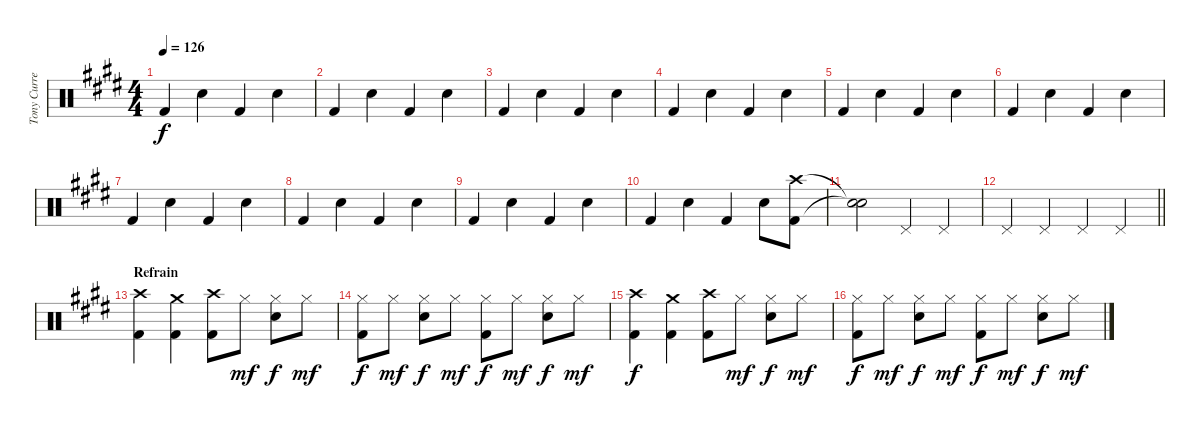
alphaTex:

\track ("Tony Currenti" "Tony Curre") {instrument percussion}
\staff {score}
\articulation defaults
\ts (4 4)
\tempo 126
\clef neutral
\ks e "Kick (hit) 2".4{dy f} "Snare (hit) 2".4 "Kick (hit) 2".4 "Snare (hit) 2".4
|
"Kick (hit) 2".4 "Snare (hit) 2".4 "Kick (hit) 2".4 "Snare (hit) 2".4 |
"Kick (hit) 2".4 "Snare (hit) 2".4 "Kick (hit) 2".4 "Snare (hit) 2".4 |
"Kick (hit) 2".4 "Snare (hit) 2".4 "Kick (hit) 2".4 "Snare (hit) 2".4 |
"Kick (hit) 2".4 "Snare (hit) 2".4 "Kick (hit) 2".4 "Snare (hit) 2".4 |
"Kick (hit) 2".4 "Snare (hit) 2".4 "Kick (hit) 2".4 "Snare (hit) 2".4 |
"Kick (hit) 2".4 "Snare (hit) 2".4 "Kick (hit) 2".4 "Snare (hit) 2".4 |
"Kick (hit) 2".4 "Snare (hit) 2".4 "Kick (hit) 2".4 "Snare (hit) 2".4 |
"Kick (hit) 2".4 "Snare (hit) 2".4 "Kick (hit) 2".4 "Snare (hit) 2".4 |
"Kick (hit) 2".4 "Snare (hit) 2".4 "Kick (hit) 2".4 "Snare (hit) 2".8 ("Crash high (hit)" "Kick (hit) 2").8 |
("Snare (hit)"{t} "Snare (hit)"{t}).2 "Pedal Hi-Hat (hit)".4 "Pedal Hi-Hat (hit)".4 |
\barLineRight lightlight "Pedal Hi-Hat (hit)".4 "Pedal Hi-Hat (hit)".4 "Pedal Hi-Hat (hit)".4 "Pedal Hi-Hat (hit)".4
|
\section ("" "Refrain")
("Crash high (hit)" "Kick (hit) 2").4 ("Crash medium (hit)" "Kick (hit) 2").4 ("Crash high (hit)" "Kick (hit) 2").8 "Hi-Hat (closed)".8{dy mf} ("Hi-Hat (closed)" "Snare (hit) 2").8{dy f} "Hi-Hat (closed)".8{dy mf} |
("Hi-Hat (closed)" "Kick (hit) 2").8{dy f} "Hi-Hat (closed)".8{dy mf} ("Hi-Hat (closed)" "Snare (hit) 2").8{dy f} "Hi-Hat (closed)".8{dy mf} ("Hi-Hat (closed)" "Kick (hit) 2").8{dy f} "Hi-Hat (closed)".8{dy mf} ("Hi-Hat (closed)" "Snare (hit) 2").8{dy f} "Hi-Hat (closed)".8{dy mf} |
("Crash high (hit)" "Kick (hit) 2").4{dy f} ("Crash medium (hit)" "Kick (hit) 2").4 ("Crash high (hit)" "Kick (hit) 2").8 "Hi-Hat (closed)".8{dy mf} ("Hi-Hat (closed)" "Snare (hit) 2").8{dy f} "Hi-Hat (closed)".8{dy mf} |
("Hi-Hat (closed)" "Kick (hit) 2").8{dy f} "Hi-Hat (closed)".8{dy mf} ("Hi-Hat (closed)" "Snare (hit) 2").8{dy f} "Hi-Hat (closed)".8{dy mf} ("Hi-Hat (closed)" "Kick (hit) 2").8{dy f} "Hi-Hat (closed)".8{dy mf} ("Hi-Hat (closed)" "Snare (hit) 2").8{dy f} "Hi-Hat (closed)".8{dy mf}
